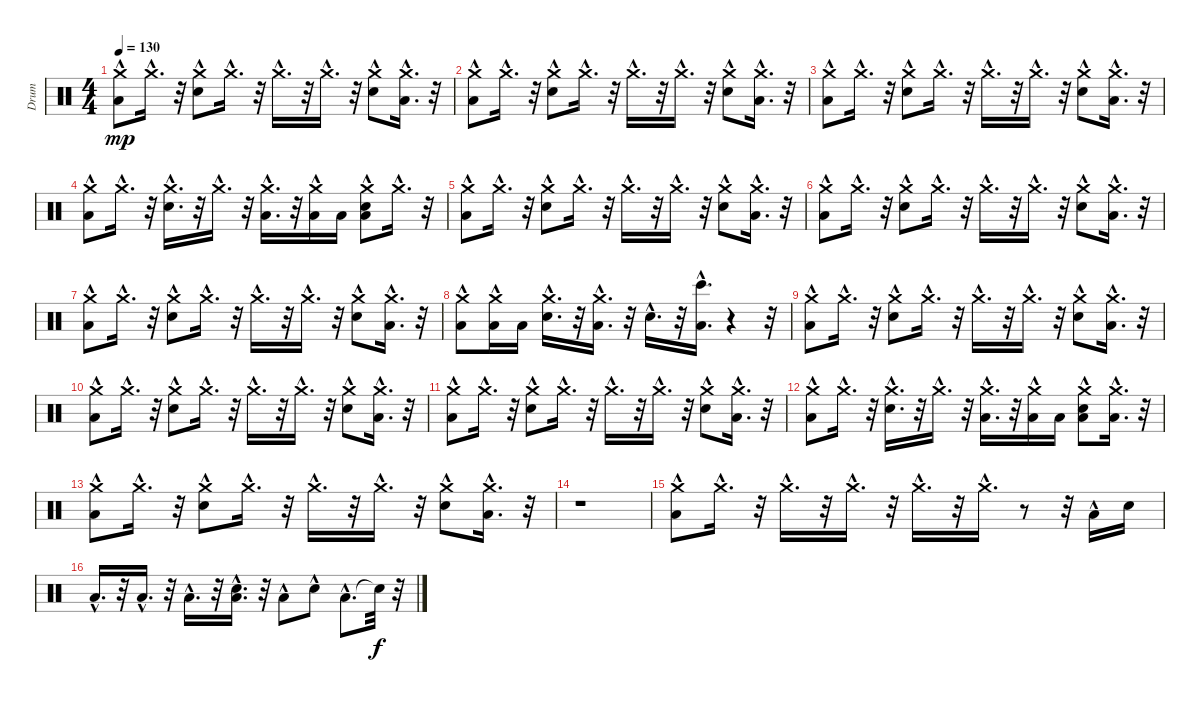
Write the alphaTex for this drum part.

\track ("Drum" "Drum") {instrument percussion}
\staff {score}
\articulation defaults
\ts (4 4)
\tempo 130
\clef neutral
\ks c
("Low Tom (hit)"{hac} "Crash medium (hit)"{hac}).8{dy mp} "Crash medium (hit)"{hac}.16{d} r.32 ("Snare (hit) 2"{hac} "Crash medium (hit)"{hac}).8 "Crash medium (hit)"{hac}.16{d} r.32 "Crash medium (hit)"{hac}.16{d} r.32 "Crash medium (hit)"{hac}.16{d} r.32 ("Snare (hit) 2"{hac} "Crash medium (hit)"{hac}).8 ("Low Tom (hit)"{hac} "Crash medium (hit)"{hac}).16{d} r.32 |
("Low Tom (hit)"{hac} "Crash medium (hit)"{hac}).8 "Crash medium (hit)"{hac}.16{d} r.32 ("Snare (hit) 2"{hac} "Crash medium (hit)"{hac}).8 "Crash medium (hit)"{hac}.16{d} r.32 "Crash medium (hit)"{hac}.16{d} r.32 "Crash medium (hit)"{hac}.16{d} r.32 ("Snare (hit) 2"{hac} "Crash medium (hit)"{hac}).8 ("Low Tom (hit)"{hac} "Crash medium (hit)"{hac}).16{d} r.32 |
("Low Tom (hit)"{hac} "Crash medium (hit)"{hac}).8 "Crash medium (hit)"{hac}.16{d} r.32 ("Snare (hit) 2"{hac} "Crash medium (hit)"{hac}).8 "Crash medium (hit)"{hac}.16{d} r.32 "Crash medium (hit)"{hac}.16{d} r.32 "Crash medium (hit)"{hac}.16{d} r.32 ("Snare (hit) 2"{hac} "Crash medium (hit)"{hac}).8 ("Low Tom (hit)"{hac} "Crash medium (hit)"{hac}).16{d} r.32 |
("Low Tom (hit)"{hac} "Crash medium (hit)"{hac}).8 "Crash medium (hit)"{hac}.16{d} r.32 ("Snare (hit) 2"{hac} "Crash medium (hit)"{hac}).16{d} r.32 "Crash medium (hit)"{hac}.16{d} r.32 ("Crash medium (hit)"{hac} "Low Tom (hit)"{hac}).16{d} r.32 ("Crash medium (hit)"{hac} "Low Tom (hit)").16 "Low Tom (hit)".16 ("Low Tom (hit)"{hac} "Snare (hit) 2"{hac} "Crash medium (hit)"{hac}).8 "Crash medium (hit)"{hac}.16{d} r.32 |
("Low Tom (hit)"{hac} "Crash medium (hit)"{hac}).8 "Crash medium (hit)"{hac}.16{d} r.32 ("Snare (hit) 2"{hac} "Crash medium (hit)"{hac}).8 "Crash medium (hit)"{hac}.16{d} r.32 "Crash medium (hit)"{hac}.16{d} r.32 "Crash medium (hit)"{hac}.16{d} r.32 ("Snare (hit) 2"{hac} "Crash medium (hit)"{hac}).8 ("Low Tom (hit)"{hac} "Crash medium (hit)"{hac}).16{d} r.32 |
("Low Tom (hit)"{hac} "Crash medium (hit)"{hac}).8 "Crash medium (hit)"{hac}.16{d} r.32 ("Snare (hit) 2"{hac} "Crash medium (hit)"{hac}).8 "Crash medium (hit)"{hac}.16{d} r.32 "Crash medium (hit)"{hac}.16{d} r.32 "Crash medium (hit)"{hac}.16{d} r.32 ("Snare (hit) 2"{hac} "Crash medium (hit)"{hac}).8 ("Low Tom (hit)"{hac} "Crash medium (hit)"{hac}).16{d} r.32 |
("Low Tom (hit)"{hac} "Crash medium (hit)"{hac}).8 "Crash medium (hit)"{hac}.16{d} r.32 ("Snare (hit) 2"{hac} "Crash medium (hit)"{hac}).8 "Crash medium (hit)"{hac}.16{d} r.32 "Crash medium (hit)"{hac}.16{d} r.32 "Crash medium (hit)"{hac}.16{d} r.32 ("Snare (hit) 2"{hac} "Crash medium (hit)"{hac}).8 ("Low Tom (hit)"{hac} "Crash medium (hit)"{hac}).16{d} r.32 |
("Crash medium (hit)" "Low Tom (hit)"{hac}).8 ("Crash medium (hit)"{hac} "Low Tom (hit)").16 "Low Tom (hit)".16 ("Snare (hit) 2"{hac} "Crash medium (hit)"{hac}).16{d} r.32 ("Low Tom (hit)"{hac} "Crash medium (hit)"{hac}).16{d} r.32 "Snare (hit) 2"{hac}.16{d} r.32 ("Bongo High (hit)"{hac} "Low Tom (hit)"{hac}).16{d} r.4 r.32 |
("Low Tom (hit)"{hac} "Crash medium (hit)"{hac}).8 "Crash medium (hit)"{hac}.16{d} r.32 ("Snare (hit) 2"{hac} "Crash medium (hit)"{hac}).8 "Crash medium (hit)"{hac}.16{d} r.32 "Crash medium (hit)"{hac}.16{d} r.32 "Crash medium (hit)"{hac}.16{d} r.32 ("Snare (hit) 2"{hac} "Crash medium (hit)"{hac}).8 ("Low Tom (hit)"{hac} "Crash medium (hit)"{hac}).16{d} r.32 |
("Low Tom (hit)"{hac} "Crash medium (hit)"{hac}).8 "Crash medium (hit)"{hac}.16{d} r.32 ("Snare (hit) 2"{hac} "Crash medium (hit)"{hac}).8 "Crash medium (hit)"{hac}.16{d} r.32 "Crash medium (hit)"{hac}.16{d} r.32 "Crash medium (hit)"{hac}.16{d} r.32 ("Snare (hit) 2"{hac} "Crash medium (hit)"{hac}).8 ("Low Tom (hit)"{hac} "Crash medium (hit)"{hac}).16{d} r.32 |
("Low Tom (hit)"{hac} "Crash medium (hit)"{hac}).8 "Crash medium (hit)"{hac}.16{d} r.32 ("Snare (hit) 2"{hac} "Crash medium (hit)"{hac}).8 "Crash medium (hit)"{hac}.16{d} r.32 "Crash medium (hit)"{hac}.16{d} r.32 "Crash medium (hit)"{hac}.16{d} r.32 ("Snare (hit) 2"{hac} "Crash medium (hit)"{hac}).8 ("Low Tom (hit)"{hac} "Crash medium (hit)"{hac}).16{d} r.32 |
("Low Tom (hit)"{hac} "Crash medium (hit)"{hac}).8 "Crash medium (hit)"{hac}.16{d} r.32 ("Snare (hit) 2"{hac} "Crash medium (hit)"{hac}).16{d} r.32 "Crash medium (hit)"{hac}.16{d} r.32 ("Crash medium (hit)"{hac} "Low Tom (hit)"{hac}).16{d} r.32 ("Crash medium (hit)"{hac} "Low Tom (hit)").16 "Low Tom (hit)".16 ("Low Tom (hit)" "Snare (hit) 2"{hac} "Crash medium (hit)"{hac}).8 ("Crash medium (hit)"{hac} "Low Tom (hit)"{hac}).16{d} r.32 |
("Low Tom (hit)"{hac} "Crash medium (hit)"{hac}).8 "Crash medium (hit)"{hac}.16{d} r.32 ("Snare (hit) 2"{hac} "Crash medium (hit)"{hac}).8 "Crash medium (hit)"{hac}.16{d} r.32 "Crash medium (hit)"{hac}.16{d} r.32 "Crash medium (hit)"{hac}.16{d} r.32 ("Snare (hit) 2"{hac} "Crash medium (hit)"{hac}).8 ("Low Tom (hit)"{hac} "Crash medium (hit)"{hac}).16{d} r.32 |
r.1 |
("Low Tom (hit)"{hac} "Crash medium (hit)"{hac}).8 "Crash medium (hit)"{hac}.16{d} r.32 "Crash medium (hit)"{hac}.16{d} r.32 "Crash medium (hit)"{hac}.16{d} r.32 "Crash medium (hit)"{hac}.16{d} r.32 "Crash medium (hit)"{hac}.16{d} r.8 r.32 "Low Tom (hit)"{hac}.16 "Snare (hit) 2".16 |
"Low Tom (hit)"{hac}.16{d} r.32 "Low Tom (hit)"{hac}.16{d} r.32 "Low Tom (hit)"{hac}.16{d} r.32 ("Snare (hit) 2" "Low Tom (hit)"{hac}).16{d} r.32 "Low Tom (hit)"{hac}.8 "Snare (hit) 2"{hac}.8 "Low Tom (hit)"{hac}.8{d} "Snare (hit)"{t}.32{dy f} r.32
